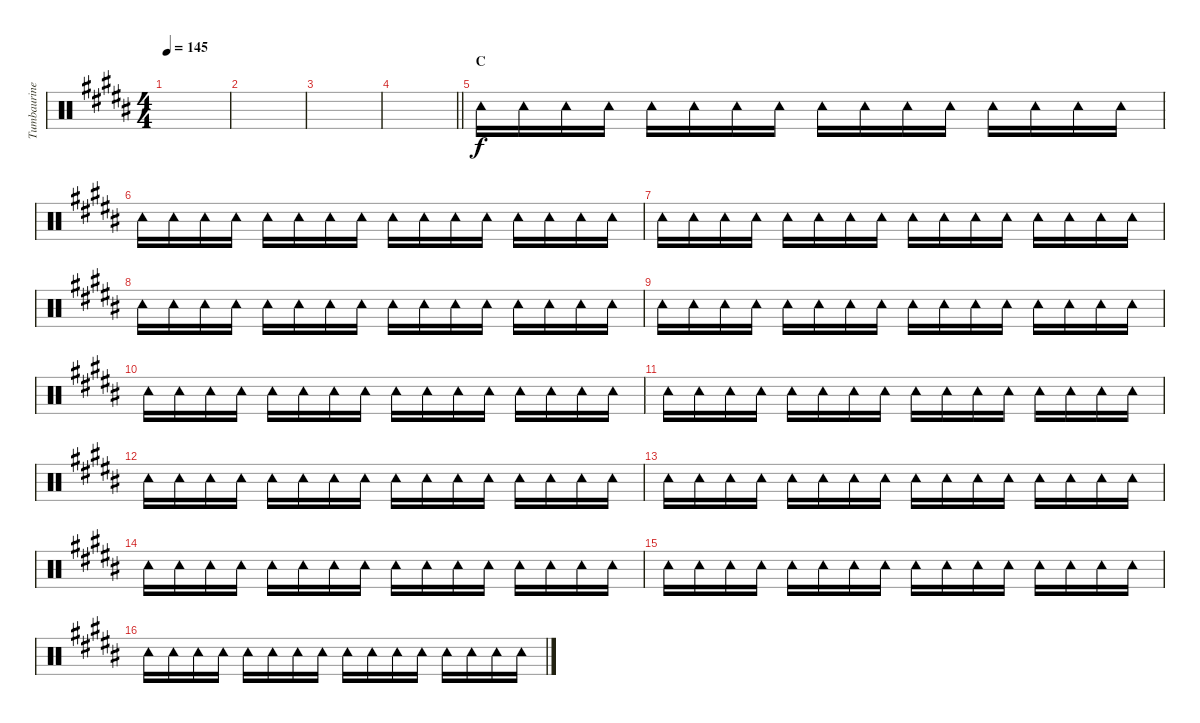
\track ("Tumbaurine" "Tumbaurine") {instrument percussion}
\staff {score}
\articulation defaults
\ts (4 4)
\tempo 145
\clef neutral
\ks b
|
|
|
\barLineRight lightlight
|
\section ("" "C")
"Tambourine (hit)".16 "Tambourine (hit)".16 "Tambourine (hit)".16 "Tambourine (hit)".16 "Tambourine (hit)".16 "Tambourine (hit)".16 "Tambourine (hit)".16 "Tambourine (hit)".16 "Tambourine (hit)".16 "Tambourine (hit)".16 "Tambourine (hit)".16 "Tambourine (hit)".16 "Tambourine (hit)".16 "Tambourine (hit)".16 "Tambourine (hit)".16 "Tambourine (hit)".16 |
"Tambourine (hit)".16 "Tambourine (hit)".16 "Tambourine (hit)".16 "Tambourine (hit)".16 "Tambourine (hit)".16 "Tambourine (hit)".16 "Tambourine (hit)".16 "Tambourine (hit)".16 "Tambourine (hit)".16 "Tambourine (hit)".16 "Tambourine (hit)".16 "Tambourine (hit)".16 "Tambourine (hit)".16 "Tambourine (hit)".16 "Tambourine (hit)".16 "Tambourine (hit)".16 |
"Tambourine (hit)".16 "Tambourine (hit)".16 "Tambourine (hit)".16 "Tambourine (hit)".16 "Tambourine (hit)".16 "Tambourine (hit)".16 "Tambourine (hit)".16 "Tambourine (hit)".16 "Tambourine (hit)".16 "Tambourine (hit)".16 "Tambourine (hit)".16 "Tambourine (hit)".16 "Tambourine (hit)".16 "Tambourine (hit)".16 "Tambourine (hit)".16 "Tambourine (hit)".16 |
"Tambourine (hit)".16 "Tambourine (hit)".16 "Tambourine (hit)".16 "Tambourine (hit)".16 "Tambourine (hit)".16 "Tambourine (hit)".16 "Tambourine (hit)".16 "Tambourine (hit)".16 "Tambourine (hit)".16 "Tambourine (hit)".16 "Tambourine (hit)".16 "Tambourine (hit)".16 "Tambourine (hit)".16 "Tambourine (hit)".16 "Tambourine (hit)".16 "Tambourine (hit)".16 |
"Tambourine (hit)".16 "Tambourine (hit)".16 "Tambourine (hit)".16 "Tambourine (hit)".16 "Tambourine (hit)".16 "Tambourine (hit)".16 "Tambourine (hit)".16 "Tambourine (hit)".16 "Tambourine (hit)".16 "Tambourine (hit)".16 "Tambourine (hit)".16 "Tambourine (hit)".16 "Tambourine (hit)".16 "Tambourine (hit)".16 "Tambourine (hit)".16 "Tambourine (hit)".16 |
"Tambourine (hit)".16 "Tambourine (hit)".16 "Tambourine (hit)".16 "Tambourine (hit)".16 "Tambourine (hit)".16 "Tambourine (hit)".16 "Tambourine (hit)".16 "Tambourine (hit)".16 "Tambourine (hit)".16 "Tambourine (hit)".16 "Tambourine (hit)".16 "Tambourine (hit)".16 "Tambourine (hit)".16 "Tambourine (hit)".16 "Tambourine (hit)".16 "Tambourine (hit)".16 |
"Tambourine (hit)".16 "Tambourine (hit)".16 "Tambourine (hit)".16 "Tambourine (hit)".16 "Tambourine (hit)".16 "Tambourine (hit)".16 "Tambourine (hit)".16 "Tambourine (hit)".16 "Tambourine (hit)".16 "Tambourine (hit)".16 "Tambourine (hit)".16 "Tambourine (hit)".16 "Tambourine (hit)".16 "Tambourine (hit)".16 "Tambourine (hit)".16 "Tambourine (hit)".16 |
"Tambourine (hit)".16 "Tambourine (hit)".16 "Tambourine (hit)".16 "Tambourine (hit)".16 "Tambourine (hit)".16 "Tambourine (hit)".16 "Tambourine (hit)".16 "Tambourine (hit)".16 "Tambourine (hit)".16 "Tambourine (hit)".16 "Tambourine (hit)".16 "Tambourine (hit)".16 "Tambourine (hit)".16 "Tambourine (hit)".16 "Tambourine (hit)".16 "Tambourine (hit)".16 |
"Tambourine (hit)".16 "Tambourine (hit)".16 "Tambourine (hit)".16 "Tambourine (hit)".16 "Tambourine (hit)".16 "Tambourine (hit)".16 "Tambourine (hit)".16 "Tambourine (hit)".16 "Tambourine (hit)".16 "Tambourine (hit)".16 "Tambourine (hit)".16 "Tambourine (hit)".16 "Tambourine (hit)".16 "Tambourine (hit)".16 "Tambourine (hit)".16 "Tambourine (hit)".16 |
"Tambourine (hit)".16 "Tambourine (hit)".16 "Tambourine (hit)".16 "Tambourine (hit)".16 "Tambourine (hit)".16 "Tambourine (hit)".16 "Tambourine (hit)".16 "Tambourine (hit)".16 "Tambourine (hit)".16 "Tambourine (hit)".16 "Tambourine (hit)".16 "Tambourine (hit)".16 "Tambourine (hit)".16 "Tambourine (hit)".16 "Tambourine (hit)".16 "Tambourine (hit)".16 |
"Tambourine (hit)".16 "Tambourine (hit)".16 "Tambourine (hit)".16 "Tambourine (hit)".16 "Tambourine (hit)".16 "Tambourine (hit)".16 "Tambourine (hit)".16 "Tambourine (hit)".16 "Tambourine (hit)".16 "Tambourine (hit)".16 "Tambourine (hit)".16 "Tambourine (hit)".16 "Tambourine (hit)".16 "Tambourine (hit)".16 "Tambourine (hit)".16 "Tambourine (hit)".16 |
"Tambourine (hit)".16 "Tambourine (hit)".16 "Tambourine (hit)".16 "Tambourine (hit)".16 "Tambourine (hit)".16 "Tambourine (hit)".16 "Tambourine (hit)".16 "Tambourine (hit)".16 "Tambourine (hit)".16 "Tambourine (hit)".16 "Tambourine (hit)".16 "Tambourine (hit)".16 "Tambourine (hit)".16 "Tambourine (hit)".16 "Tambourine (hit)".16 "Tambourine (hit)".16
